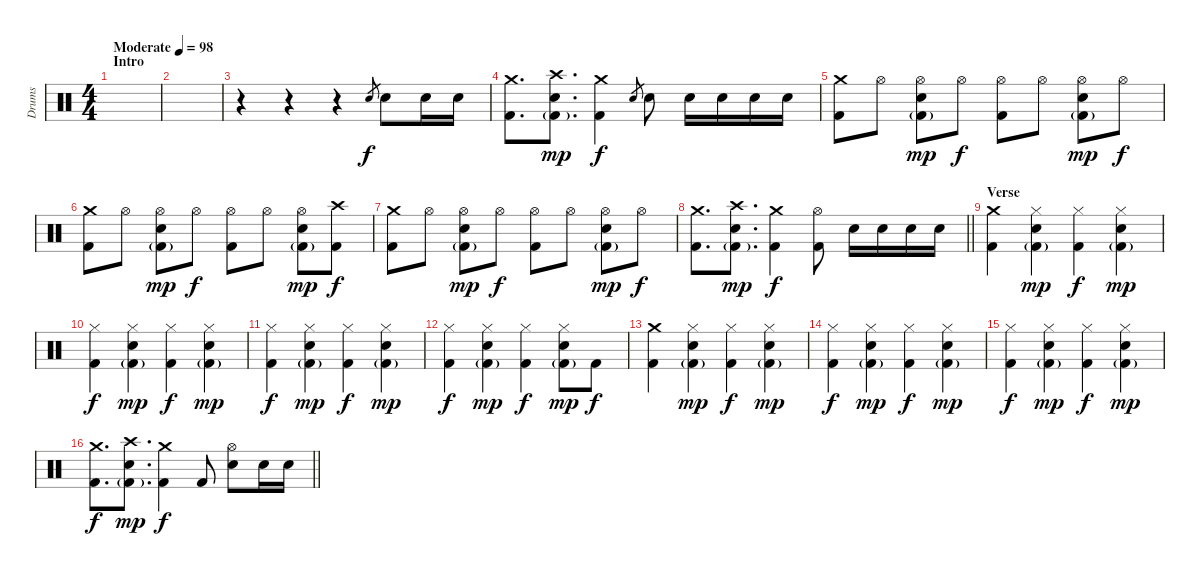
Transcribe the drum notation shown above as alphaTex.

\track ("Drums" "Drums") {instrument percussion}
\staff {score}
\articulation defaults
\ts (4 4)
\section ("" "Intro")
\tempo (98 "Moderate")
\clef neutral
\ks c
|
|
r.4 r.4 r.4 "Electric Snare (hit)".8{gr} "Electric Snare (hit)".8 "Electric Snare (hit)".16 "Electric Snare (hit)".16 |
("Crash medium (hit)" "Kick (hit) 2").8{d} ("Crash high (hit)" "Electric Snare (hit)" "Kick (hit) 2"{g}).8{d dy mp} ("Crash medium (hit)" "Kick (hit) 2").4{dy f} "Electric Snare (hit)".8{gr} "Electric Snare (hit)".8 "Electric Snare (hit)".16 "Electric Snare (hit)".16 "Electric Snare (hit)".16 "Electric Snare (hit)".16 |
("Crash medium (hit)" "Kick (hit) 2").8 "Hi-Hat (open)".8 ("Hi-Hat (open)" "Electric Snare (hit)" "Kick (hit) 2"{g}).8{dy mp} "Hi-Hat (open)".8{dy f} ("Hi-Hat (open)" "Kick (hit) 2").8 "Hi-Hat (open)".8 ("Hi-Hat (open)" "Electric Snare (hit)" "Kick (hit) 2"{g}).8{dy mp} "Hi-Hat (open)".8{dy f} |
("Crash medium (hit)" "Kick (hit) 2").8 "Hi-Hat (open)".8 ("Hi-Hat (open)" "Electric Snare (hit)" "Kick (hit) 2"{g}).8{dy mp} "Hi-Hat (open)".8{dy f} ("Hi-Hat (open)" "Kick (hit) 2").8 "Hi-Hat (open)".8 ("Hi-Hat (open)" "Electric Snare (hit)" "Kick (hit) 2"{g}).8{dy mp} ("Crash high (hit)" "Kick (hit) 2").8{dy f} |
("Crash medium (hit)" "Kick (hit) 2").8 "Hi-Hat (open)".8 ("Hi-Hat (open)" "Electric Snare (hit)" "Kick (hit) 2"{g}).8{dy mp} "Hi-Hat (open)".8{dy f} ("Hi-Hat (open)" "Kick (hit) 2").8 "Hi-Hat (open)".8 ("Hi-Hat (open)" "Electric Snare (hit)" "Kick (hit) 2"{g}).8{dy mp} "Hi-Hat (open)".8{dy f} |
\barLineRight lightlight
("Crash medium (hit)" "Kick (hit) 2").8{d} ("Crash high (hit)" "Electric Snare (hit)" "Kick (hit) 2"{g}).8{d dy mp} ("Crash medium (hit)" "Kick (hit) 2").4{dy f} ("Hi-Hat (open)" "Kick (hit) 2").8 "Electric Snare (hit)".16 "Electric Snare (hit)".16 "Electric Snare (hit)".16 "Electric Snare (hit)".16 |
\section ("" "Verse")
("Crash medium (hit)" "Kick (hit) 2").4 ("Hi-Hat (closed)" "Electric Snare (hit)" "Kick (hit) 2"{g}).4{dy mp} ("Hi-Hat (closed)" "Kick (hit) 2").4{dy f} ("Hi-Hat (closed)" "Electric Snare (hit)" "Kick (hit) 2"{g}).4{dy mp} |
("Hi-Hat (closed)" "Kick (hit) 2").4{dy f} ("Hi-Hat (closed)" "Electric Snare (hit)" "Kick (hit) 2"{g}).4{dy mp} ("Hi-Hat (closed)" "Kick (hit) 2").4{dy f} ("Hi-Hat (closed)" "Electric Snare (hit)" "Kick (hit) 2"{g}).4{dy mp} |
("Hi-Hat (closed)" "Kick (hit) 2").4{dy f} ("Hi-Hat (closed)" "Electric Snare (hit)" "Kick (hit) 2"{g}).4{dy mp} ("Hi-Hat (closed)" "Kick (hit) 2").4{dy f} ("Hi-Hat (closed)" "Electric Snare (hit)" "Kick (hit) 2"{g}).4{dy mp} |
("Hi-Hat (closed)" "Kick (hit) 2").4{dy f} ("Hi-Hat (closed)" "Electric Snare (hit)" "Kick (hit) 2"{g}).4{dy mp} ("Hi-Hat (closed)" "Kick (hit) 2").4{dy f} ("Hi-Hat (closed)" "Electric Snare (hit)" "Kick (hit) 2"{g}).8{dy mp} "Kick (hit) 2".8{dy f} |
("Crash medium (hit)" "Kick (hit) 2").4 ("Hi-Hat (closed)" "Electric Snare (hit)" "Kick (hit) 2"{g}).4{dy mp} ("Hi-Hat (closed)" "Kick (hit) 2").4{dy f} ("Hi-Hat (closed)" "Electric Snare (hit)" "Kick (hit) 2"{g}).4{dy mp} |
("Hi-Hat (closed)" "Kick (hit) 2").4{dy f} ("Hi-Hat (closed)" "Electric Snare (hit)" "Kick (hit) 2"{g}).4{dy mp} ("Hi-Hat (closed)" "Kick (hit) 2").4{dy f} ("Hi-Hat (closed)" "Electric Snare (hit)" "Kick (hit) 2"{g}).4{dy mp} |
("Hi-Hat (closed)" "Kick (hit) 2").4{dy f} ("Hi-Hat (closed)" "Electric Snare (hit)" "Kick (hit) 2"{g}).4{dy mp} ("Hi-Hat (closed)" "Kick (hit) 2").4{dy f} ("Hi-Hat (closed)" "Electric Snare (hit)" "Kick (hit) 2"{g}).4{dy mp} |
\barLineRight lightlight
("Crash medium (hit)" "Kick (hit) 2").8{d dy f} ("Crash high (hit)" "Electric Snare (hit)" "Kick (hit) 2"{g}).8{d dy mp} ("Crash medium (hit)" "Kick (hit) 2").4{dy f} "Kick (hit) 2".8 ("Hi-Hat (open)" "Electric Snare (hit)").8 "Electric Snare (hit)".16 "Electric Snare (hit)".16
